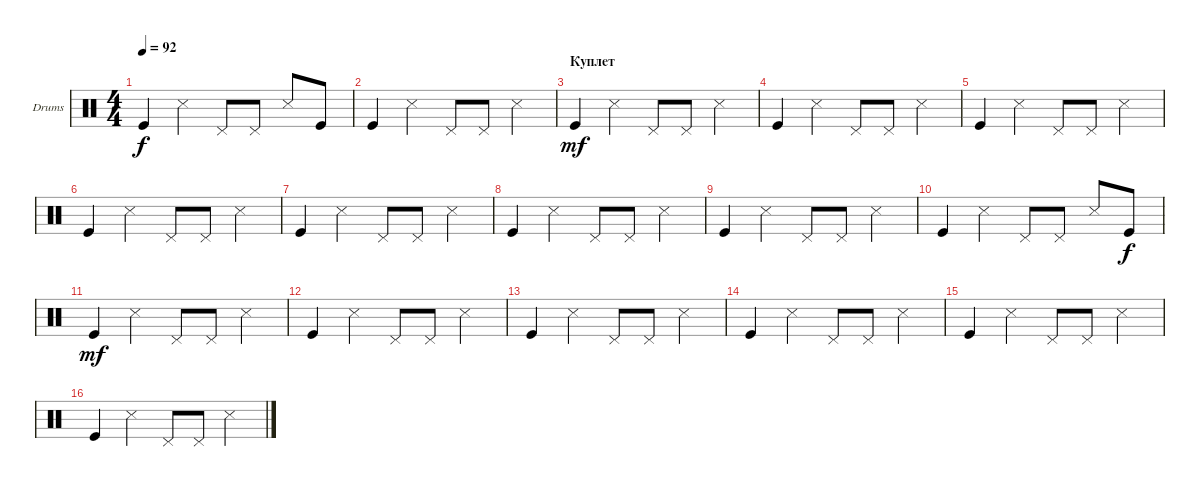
\defaultSystemsLayout 4
\bracketExtendMode groupsimilarinstruments
\firstSystemTrackNameOrientation horizontal
\otherSystemsTrackNameOrientation horizontal
\track ("Е. Кулаков" "Drums") {instrument percussion}
\staff {score}
\articulation defaults
\ts (4 4)
\tempo 92
\clef neutral
\ks c "Kick (hit)".4{dy f} "Snare (side stick) 3".4 "Pedal Hi-Hat (hit)".8 "Pedal Hi-Hat (hit)".8 "Snare (side stick) 3".8 "Kick (hit)".8
|
"Kick (hit)".4 "Snare (side stick) 3".4 "Pedal Hi-Hat (hit)".8 "Pedal Hi-Hat (hit)".8 "Snare (side stick) 3".4 |
\section ("" "Куплет")
"Kick (hit)".4{dy mf} "Snare (side stick) 3".4 "Pedal Hi-Hat (hit)".8 "Pedal Hi-Hat (hit)".8 "Snare (side stick) 3".4 |
"Kick (hit)".4 "Snare (side stick) 3".4 "Pedal Hi-Hat (hit)".8 "Pedal Hi-Hat (hit)".8 "Snare (side stick) 3".4 |
"Kick (hit)".4 "Snare (side stick) 3".4 "Pedal Hi-Hat (hit)".8 "Pedal Hi-Hat (hit)".8 "Snare (side stick) 3".4 |
"Kick (hit)".4 "Snare (side stick) 3".4 "Pedal Hi-Hat (hit)".8 "Pedal Hi-Hat (hit)".8 "Snare (side stick) 3".4 |
"Kick (hit)".4 "Snare (side stick) 3".4 "Pedal Hi-Hat (hit)".8 "Pedal Hi-Hat (hit)".8 "Snare (side stick) 3".4 |
"Kick (hit)".4 "Snare (side stick) 3".4 "Pedal Hi-Hat (hit)".8 "Pedal Hi-Hat (hit)".8 "Snare (side stick) 3".4 |
"Kick (hit)".4 "Snare (side stick) 3".4 "Pedal Hi-Hat (hit)".8 "Pedal Hi-Hat (hit)".8 "Snare (side stick) 3".4 |
"Kick (hit)".4 "Snare (side stick) 3".4 "Pedal Hi-Hat (hit)".8 "Pedal Hi-Hat (hit)".8 "Snare (side stick) 3".8 "Kick (hit)".8{dy f} |
"Kick (hit)".4{dy mf} "Snare (side stick) 3".4 "Pedal Hi-Hat (hit)".8 "Pedal Hi-Hat (hit)".8 "Snare (side stick) 3".4 |
"Kick (hit)".4 "Snare (side stick) 3".4 "Pedal Hi-Hat (hit)".8 "Pedal Hi-Hat (hit)".8 "Snare (side stick) 3".4 |
"Kick (hit)".4 "Snare (side stick) 3".4 "Pedal Hi-Hat (hit)".8 "Pedal Hi-Hat (hit)".8 "Snare (side stick) 3".4 |
"Kick (hit)".4 "Snare (side stick) 3".4 "Pedal Hi-Hat (hit)".8 "Pedal Hi-Hat (hit)".8 "Snare (side stick) 3".4 |
"Kick (hit)".4 "Snare (side stick) 3".4 "Pedal Hi-Hat (hit)".8 "Pedal Hi-Hat (hit)".8 "Snare (side stick) 3".4 |
"Kick (hit)".4 "Snare (side stick) 3".4 "Pedal Hi-Hat (hit)".8 "Pedal Hi-Hat (hit)".8 "Snare (side stick) 3".4
